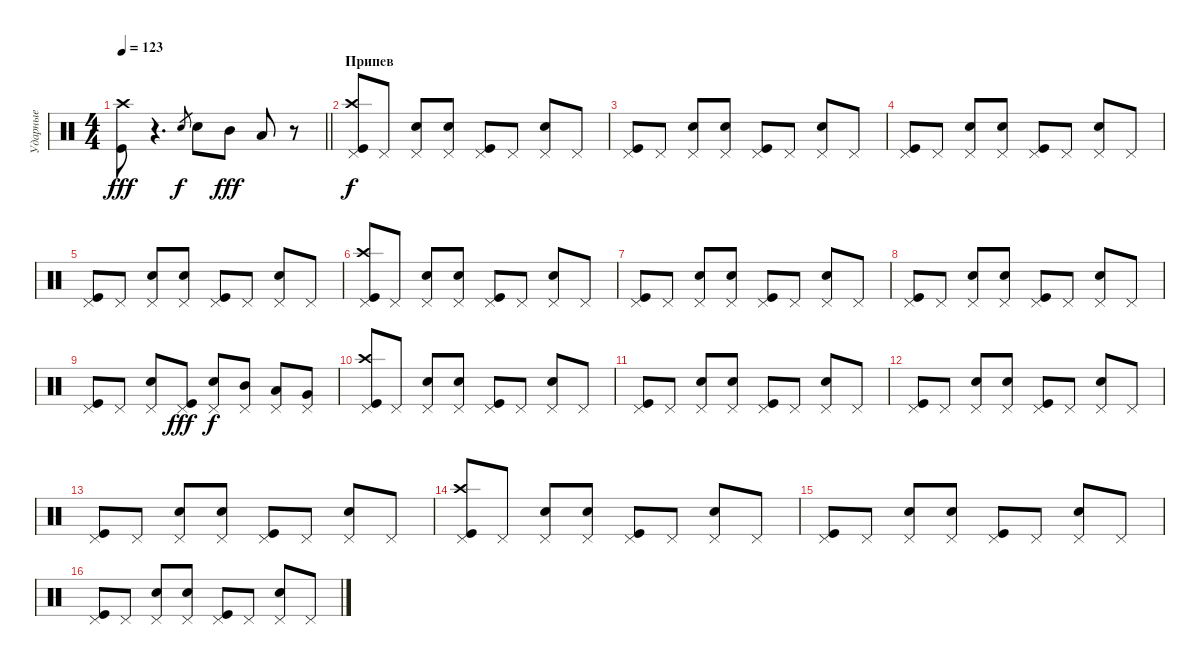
\track ("Ударные" "Ударные") {instrument percussion}
\staff {score}
\articulation defaults
\ts (4 4)
\tempo 123
\clef neutral
\barLineRight lightlight
\ks c
("Kick (hit)" "Crash high (hit)").8{dy fff} r.4{d} "Snare (hit) 2".8{gr dy f} "Snare (hit) 2".8 "Mid Tom (hit)".8{dy fff} "Low Tom (hit)".8 r.8 |
\section ("" "Припев")
("Kick (hit)" "Pedal Hi-Hat (hit)" "Crash high (hit)").8{dy f} "Pedal Hi-Hat (hit)".8 ("Pedal Hi-Hat (hit)" "Snare (hit) 2").8 ("Pedal Hi-Hat (hit)" "Snare (hit) 2").8 ("Kick (hit)" "Pedal Hi-Hat (hit)").8 "Pedal Hi-Hat (hit)".8 ("Pedal Hi-Hat (hit)" "Snare (hit) 2").8 "Pedal Hi-Hat (hit)".8 |
("Kick (hit)" "Pedal Hi-Hat (hit)").8 "Pedal Hi-Hat (hit)".8 ("Pedal Hi-Hat (hit)" "Snare (hit) 2").8 ("Pedal Hi-Hat (hit)" "Snare (hit) 2").8 ("Kick (hit)" "Pedal Hi-Hat (hit)").8 "Pedal Hi-Hat (hit)".8 ("Pedal Hi-Hat (hit)" "Snare (hit) 2").8 "Pedal Hi-Hat (hit)".8 |
("Kick (hit)" "Pedal Hi-Hat (hit)").8 "Pedal Hi-Hat (hit)".8 ("Pedal Hi-Hat (hit)" "Snare (hit) 2").8 ("Pedal Hi-Hat (hit)" "Snare (hit) 2").8 ("Kick (hit)" "Pedal Hi-Hat (hit)").8 "Pedal Hi-Hat (hit)".8 ("Pedal Hi-Hat (hit)" "Snare (hit) 2").8 "Pedal Hi-Hat (hit)".8 |
("Kick (hit)" "Pedal Hi-Hat (hit)").8 "Pedal Hi-Hat (hit)".8 ("Pedal Hi-Hat (hit)" "Snare (hit) 2").8 ("Pedal Hi-Hat (hit)" "Snare (hit) 2").8 ("Kick (hit)" "Pedal Hi-Hat (hit)").8 "Pedal Hi-Hat (hit)".8 ("Pedal Hi-Hat (hit)" "Snare (hit) 2").8 "Pedal Hi-Hat (hit)".8 |
("Kick (hit)" "Pedal Hi-Hat (hit)" "Crash high (hit)").8 "Pedal Hi-Hat (hit)".8 ("Pedal Hi-Hat (hit)" "Snare (hit) 2").8 ("Pedal Hi-Hat (hit)" "Snare (hit) 2").8 ("Kick (hit)" "Pedal Hi-Hat (hit)").8 "Pedal Hi-Hat (hit)".8 ("Pedal Hi-Hat (hit)" "Snare (hit) 2").8 "Pedal Hi-Hat (hit)".8 |
("Kick (hit)" "Pedal Hi-Hat (hit)").8 "Pedal Hi-Hat (hit)".8 ("Pedal Hi-Hat (hit)" "Snare (hit) 2").8 ("Pedal Hi-Hat (hit)" "Snare (hit) 2").8 ("Kick (hit)" "Pedal Hi-Hat (hit)").8 "Pedal Hi-Hat (hit)".8 ("Pedal Hi-Hat (hit)" "Snare (hit) 2").8 "Pedal Hi-Hat (hit)".8 |
("Kick (hit)" "Pedal Hi-Hat (hit)").8 "Pedal Hi-Hat (hit)".8 ("Pedal Hi-Hat (hit)" "Snare (hit) 2").8 ("Pedal Hi-Hat (hit)" "Snare (hit) 2").8 ("Kick (hit)" "Pedal Hi-Hat (hit)").8 "Pedal Hi-Hat (hit)".8 ("Pedal Hi-Hat (hit)" "Snare (hit) 2").8 "Pedal Hi-Hat (hit)".8 |
("Kick (hit)" "Pedal Hi-Hat (hit)").8 "Pedal Hi-Hat (hit)".8 ("Pedal Hi-Hat (hit)" "Snare (hit) 2").8 ("Kick (hit)" "Pedal Hi-Hat (hit)").8{dy fff} ("Pedal Hi-Hat (hit)" "Snare (hit) 2").8{dy f} ("Pedal Hi-Hat (hit)" "Mid Tom (hit)").8 ("Pedal Hi-Hat (hit)" "Low Tom (hit)").8 ("Pedal Hi-Hat (hit)" "Very Low Tom (hit)").8 |
("Kick (hit)" "Pedal Hi-Hat (hit)" "Crash high (hit)").8 "Pedal Hi-Hat (hit)".8 ("Pedal Hi-Hat (hit)" "Snare (hit) 2").8 ("Pedal Hi-Hat (hit)" "Snare (hit) 2").8 ("Kick (hit)" "Pedal Hi-Hat (hit)").8 "Pedal Hi-Hat (hit)".8 ("Pedal Hi-Hat (hit)" "Snare (hit) 2").8 "Pedal Hi-Hat (hit)".8 |
("Kick (hit)" "Pedal Hi-Hat (hit)").8 "Pedal Hi-Hat (hit)".8 ("Pedal Hi-Hat (hit)" "Snare (hit) 2").8 ("Pedal Hi-Hat (hit)" "Snare (hit) 2").8 ("Kick (hit)" "Pedal Hi-Hat (hit)").8 "Pedal Hi-Hat (hit)".8 ("Pedal Hi-Hat (hit)" "Snare (hit) 2").8 "Pedal Hi-Hat (hit)".8 |
("Kick (hit)" "Pedal Hi-Hat (hit)").8 "Pedal Hi-Hat (hit)".8 ("Pedal Hi-Hat (hit)" "Snare (hit) 2").8 ("Pedal Hi-Hat (hit)" "Snare (hit) 2").8 ("Kick (hit)" "Pedal Hi-Hat (hit)").8 "Pedal Hi-Hat (hit)".8 ("Pedal Hi-Hat (hit)" "Snare (hit) 2").8 "Pedal Hi-Hat (hit)".8 |
("Kick (hit)" "Pedal Hi-Hat (hit)").8 "Pedal Hi-Hat (hit)".8 ("Pedal Hi-Hat (hit)" "Snare (hit) 2").8 ("Pedal Hi-Hat (hit)" "Snare (hit) 2").8 ("Kick (hit)" "Pedal Hi-Hat (hit)").8 "Pedal Hi-Hat (hit)".8 ("Pedal Hi-Hat (hit)" "Snare (hit) 2").8 "Pedal Hi-Hat (hit)".8 |
("Kick (hit)" "Pedal Hi-Hat (hit)" "Crash high (hit)").8 "Pedal Hi-Hat (hit)".8 ("Pedal Hi-Hat (hit)" "Snare (hit) 2").8 ("Pedal Hi-Hat (hit)" "Snare (hit) 2").8 ("Kick (hit)" "Pedal Hi-Hat (hit)").8 "Pedal Hi-Hat (hit)".8 ("Pedal Hi-Hat (hit)" "Snare (hit) 2").8 "Pedal Hi-Hat (hit)".8 |
("Kick (hit)" "Pedal Hi-Hat (hit)").8 "Pedal Hi-Hat (hit)".8 ("Pedal Hi-Hat (hit)" "Snare (hit) 2").8 ("Pedal Hi-Hat (hit)" "Snare (hit) 2").8 ("Kick (hit)" "Pedal Hi-Hat (hit)").8 "Pedal Hi-Hat (hit)".8 ("Pedal Hi-Hat (hit)" "Snare (hit) 2").8 "Pedal Hi-Hat (hit)".8 |
("Kick (hit)" "Pedal Hi-Hat (hit)").8 "Pedal Hi-Hat (hit)".8 ("Pedal Hi-Hat (hit)" "Snare (hit) 2").8 ("Pedal Hi-Hat (hit)" "Snare (hit) 2").8 ("Kick (hit)" "Pedal Hi-Hat (hit)").8 "Pedal Hi-Hat (hit)".8 ("Pedal Hi-Hat (hit)" "Snare (hit) 2").8 "Pedal Hi-Hat (hit)".8
